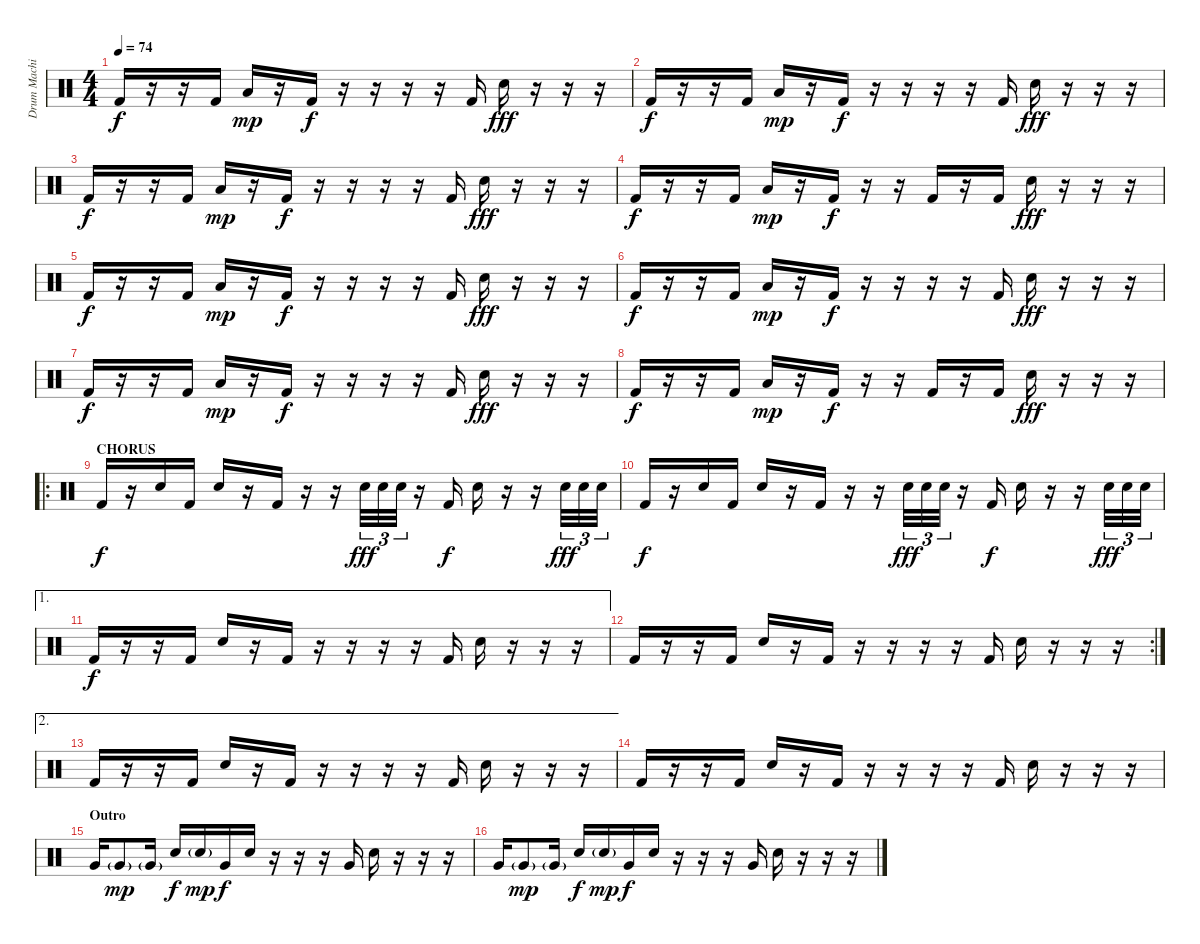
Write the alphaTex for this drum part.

\track ("Drum Machine" "Drum Machi") {instrument percussion}
\staff {score}
\articulation defaults
\ts (4 4)
\tempo 74
\clef neutral
\ks c "Kick (hit) 2".16{dy f}
r.16 r.16 "Kick (hit) 2".16 "Low Tom (hit)".16{dy mp} r.16 "Kick (hit) 2".16{dy f} r.16 r.16 r.16 r.16 "Kick (hit) 2".16 "Electric Snare (hit)".16{dy fff} r.16 r.16 r.16 |
"Kick (hit) 2".16{dy f} r.16 r.16 "Kick (hit) 2".16 "Low Tom (hit)".16{dy mp} r.16 "Kick (hit) 2".16{dy f} r.16 r.16 r.16 r.16 "Kick (hit) 2".16 "Electric Snare (hit)".16{dy fff} r.16 r.16 r.16 |
"Kick (hit) 2".16{dy f} r.16 r.16 "Kick (hit) 2".16 "Low Tom (hit)".16{dy mp} r.16 "Kick (hit) 2".16{dy f} r.16 r.16 r.16 r.16 "Kick (hit) 2".16 "Electric Snare (hit)".16{dy fff} r.16 r.16 r.16 |
"Kick (hit) 2".16{dy f} r.16 r.16 "Kick (hit) 2".16 "Low Tom (hit)".16{dy mp} r.16 "Kick (hit) 2".16{dy f} r.16 r.16 "Kick (hit) 2".16 r.16 "Kick (hit) 2".16 "Electric Snare (hit)".16{dy fff} r.16 r.16 r.16 |
"Kick (hit) 2".16{dy f} r.16 r.16 "Kick (hit) 2".16 "Low Tom (hit)".16{dy mp} r.16 "Kick (hit) 2".16{dy f} r.16 r.16 r.16 r.16 "Kick (hit) 2".16 "Electric Snare (hit)".16{dy fff} r.16 r.16 r.16 |
"Kick (hit) 2".16{dy f} r.16 r.16 "Kick (hit) 2".16 "Low Tom (hit)".16{dy mp} r.16 "Kick (hit) 2".16{dy f} r.16 r.16 r.16 r.16 "Kick (hit) 2".16 "Electric Snare (hit)".16{dy fff} r.16 r.16 r.16 |
"Kick (hit) 2".16{dy f} r.16 r.16 "Kick (hit) 2".16 "Low Tom (hit)".16{dy mp} r.16 "Kick (hit) 2".16{dy f} r.16 r.16 r.16 r.16 "Kick (hit) 2".16 "Electric Snare (hit)".16{dy fff} r.16 r.16 r.16 |
"Kick (hit) 2".16{dy f} r.16 r.16 "Kick (hit) 2".16 "Low Tom (hit)".16{dy mp} r.16 "Kick (hit) 2".16{dy f} r.16 r.16 "Kick (hit) 2".16 r.16 "Kick (hit) 2".16 "Electric Snare (hit)".16{dy fff} r.16 r.16 r.16 |
\ro
\section ("" "CHORUS")
"Kick (hit) 2".16{dy f} r.16 "Electric Snare (hit)".16 "Kick (hit) 2".16 "Electric Snare (hit)".16 r.16 "Kick (hit) 2".16 r.16 r.16 "Electric Snare (hit)".32{tu (3 2) dy fff} "Electric Snare (hit)".32{tu (3 2)} "Electric Snare (hit)".32{tu (3 2)} r.16 "Kick (hit) 2".16{dy f} "Electric Snare (hit)".16 r.16 r.16 "Electric Snare (hit)".32{tu (3 2) dy fff} "Electric Snare (hit)".32{tu (3 2)} "Electric Snare (hit)".32{tu (3 2)} |
"Kick (hit) 2".16{dy f} r.16 "Electric Snare (hit)".16 "Kick (hit) 2".16 "Electric Snare (hit)".16 r.16 "Kick (hit) 2".16 r.16 r.16 "Electric Snare (hit)".32{tu (3 2) dy fff} "Electric Snare (hit)".32{tu (3 2)} "Electric Snare (hit)".32{tu (3 2)} r.16 "Kick (hit) 2".16{dy f} "Electric Snare (hit)".16 r.16 r.16 "Electric Snare (hit)".32{tu (3 2) dy fff} "Electric Snare (hit)".32{tu (3 2)} "Electric Snare (hit)".32{tu (3 2)} |
\ae 1 "Kick (hit) 2".16{dy f}
r.16 r.16 "Kick (hit) 2".16 "Electric Snare (hit)".16 r.16 "Kick (hit) 2".16 r.16 r.16 r.16 r.16 "Kick (hit) 2".16 "Electric Snare (hit)".16 r.16 r.16 r.16 |
\rc 2 "Kick (hit) 2".16
r.16 r.16 "Kick (hit) 2".16 "Electric Snare (hit)".16 r.16 "Kick (hit) 2".16 r.16 r.16 r.16 r.16 "Kick (hit) 2".16 "Electric Snare (hit)".16 r.16 r.16 r.16 |
\ae 2 "Kick (hit) 2".16
r.16 r.16 "Kick (hit) 2".16 "Electric Snare (hit)".16 r.16 "Kick (hit) 2".16 r.16 r.16 r.16 r.16 "Kick (hit) 2".16 "Electric Snare (hit)".16 r.16 r.16 r.16 |
"Kick (hit) 2".16 r.16 r.16 "Kick (hit) 2".16 "Electric Snare (hit)".16 r.16 "Kick (hit) 2".16 r.16 r.16 r.16 r.16 "Kick (hit) 2".16 "Electric Snare (hit)".16 r.16 r.16 r.16 |
\section ("" "Outro")
"Very Low Tom (hit)".16 "Very Low Tom (hit)"{g}.8{dy mp} "Very Low Tom (hit)"{g}.16 "Electric Snare (hit)".16{dy f} "Electric Snare (hit)"{g}.16{dy mp} "Very Low Tom (hit)".16{dy f} "Electric Snare (hit)".16 r.16 r.16 r.16 "Very Low Tom (hit)".16 "Electric Snare (hit)".16 r.16 r.16 r.16 |
"Very Low Tom (hit)".16{volume 10} "Very Low Tom (hit)"{g}.8{dy mp} "Very Low Tom (hit)"{g}.16 "Electric Snare (hit)".16{dy f} "Electric Snare (hit)"{g}.16{dy mp} "Very Low Tom (hit)".16{dy f} "Electric Snare (hit)".16 r.16 r.16 r.16 "Very Low Tom (hit)".16 "Electric Snare (hit)".16 r.16 r.16 r.16
